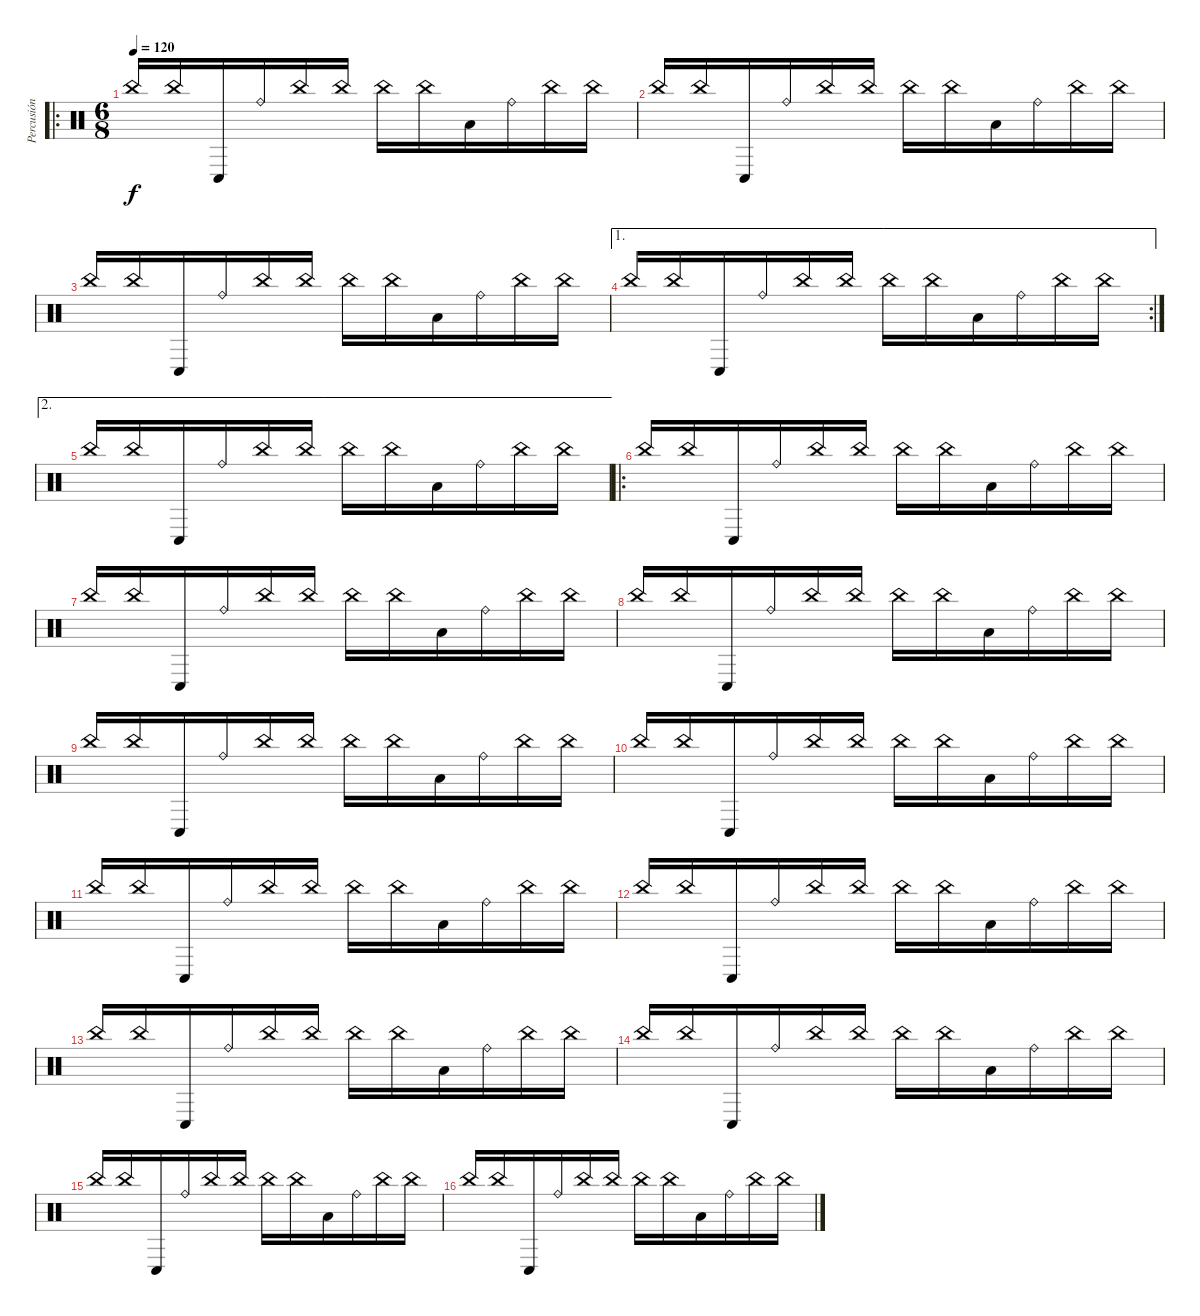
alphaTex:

\track ("Percusión" "Percusión") {instrument percussion}
\staff {score}
\articulation defaults
\ro
\ts (6 8)
\tempo 120
\clef neutral
\ks c "China (hit)".16{dy f} "China (hit)".16 "Conga low (hit)".16 "Ride (bell)".16 "China (hit)".16 "China (hit)".16 "China (hit)".16 "China (hit)".16 "Low Tom (hit)".16 "Ride (bell)".16 "China (hit)".16 "China (hit)".16
|
"China (hit)".16 "China (hit)".16 "Conga low (hit)".16 "Ride (bell)".16 "China (hit)".16 "China (hit)".16 "China (hit)".16 "China (hit)".16 "Low Tom (hit)".16 "Ride (bell)".16 "China (hit)".16 "China (hit)".16 |
"China (hit)".16 "China (hit)".16 "Conga low (hit)".16 "Ride (bell)".16 "China (hit)".16 "China (hit)".16 "China (hit)".16 "China (hit)".16 "Low Tom (hit)".16 "Ride (bell)".16 "China (hit)".16 "China (hit)".16 |
\ae 1
\rc 2 "China (hit)".16 "China (hit)".16 "Conga low (hit)".16 "Ride (bell)".16 "China (hit)".16 "China (hit)".16 "China (hit)".16 "China (hit)".16 "Low Tom (hit)".16 "Ride (bell)".16 "China (hit)".16 "China (hit)".16
|
\ae 2 "China (hit)".16 "China (hit)".16 "Conga low (hit)".16 "Ride (bell)".16 "China (hit)".16 "China (hit)".16 "China (hit)".16 "China (hit)".16 "Low Tom (hit)".16 "Ride (bell)".16 "China (hit)".16 "China (hit)".16
|
\ro "China (hit)".16 "China (hit)".16 "Conga low (hit)".16 "Ride (bell)".16 "China (hit)".16 "China (hit)".16 "China (hit)".16 "China (hit)".16 "Low Tom (hit)".16 "Ride (bell)".16 "China (hit)".16 "China (hit)".16
|
"China (hit)".16 "China (hit)".16 "Conga low (hit)".16 "Ride (bell)".16 "China (hit)".16 "China (hit)".16 "China (hit)".16 "China (hit)".16 "Low Tom (hit)".16 "Ride (bell)".16 "China (hit)".16 "China (hit)".16 |
"China (hit)".16 "China (hit)".16 "Conga low (hit)".16 "Ride (bell)".16 "China (hit)".16 "China (hit)".16 "China (hit)".16 "China (hit)".16 "Low Tom (hit)".16 "Ride (bell)".16 "China (hit)".16 "China (hit)".16 |
"China (hit)".16 "China (hit)".16 "Conga low (hit)".16 "Ride (bell)".16 "China (hit)".16 "China (hit)".16 "China (hit)".16 "China (hit)".16 "Low Tom (hit)".16 "Ride (bell)".16 "China (hit)".16 "China (hit)".16 |
"China (hit)".16 "China (hit)".16 "Conga low (hit)".16 "Ride (bell)".16 "China (hit)".16 "China (hit)".16 "China (hit)".16 "China (hit)".16 "Low Tom (hit)".16 "Ride (bell)".16 "China (hit)".16 "China (hit)".16 |
"China (hit)".16 "China (hit)".16 "Conga low (hit)".16 "Ride (bell)".16 "China (hit)".16 "China (hit)".16 "China (hit)".16 "China (hit)".16 "Low Tom (hit)".16 "Ride (bell)".16 "China (hit)".16 "China (hit)".16 |
"China (hit)".16 "China (hit)".16 "Conga low (hit)".16 "Ride (bell)".16 "China (hit)".16 "China (hit)".16 "China (hit)".16 "China (hit)".16 "Low Tom (hit)".16 "Ride (bell)".16 "China (hit)".16 "China (hit)".16 |
"China (hit)".16 "China (hit)".16 "Conga low (hit)".16 "Ride (bell)".16 "China (hit)".16 "China (hit)".16 "China (hit)".16 "China (hit)".16 "Low Tom (hit)".16 "Ride (bell)".16 "China (hit)".16 "China (hit)".16 |
"China (hit)".16 "China (hit)".16 "Conga low (hit)".16 "Ride (bell)".16 "China (hit)".16 "China (hit)".16 "China (hit)".16 "China (hit)".16 "Low Tom (hit)".16 "Ride (bell)".16 "China (hit)".16 "China (hit)".16 |
"China (hit)".16 "China (hit)".16 "Conga low (hit)".16 "Ride (bell)".16 "China (hit)".16 "China (hit)".16 "China (hit)".16 "China (hit)".16 "Low Tom (hit)".16 "Ride (bell)".16 "China (hit)".16 "China (hit)".16 |
"China (hit)".16 "China (hit)".16 "Conga low (hit)".16 "Ride (bell)".16 "China (hit)".16 "China (hit)".16 "China (hit)".16 "China (hit)".16 "Low Tom (hit)".16 "Ride (bell)".16 "China (hit)".16 "China (hit)".16
